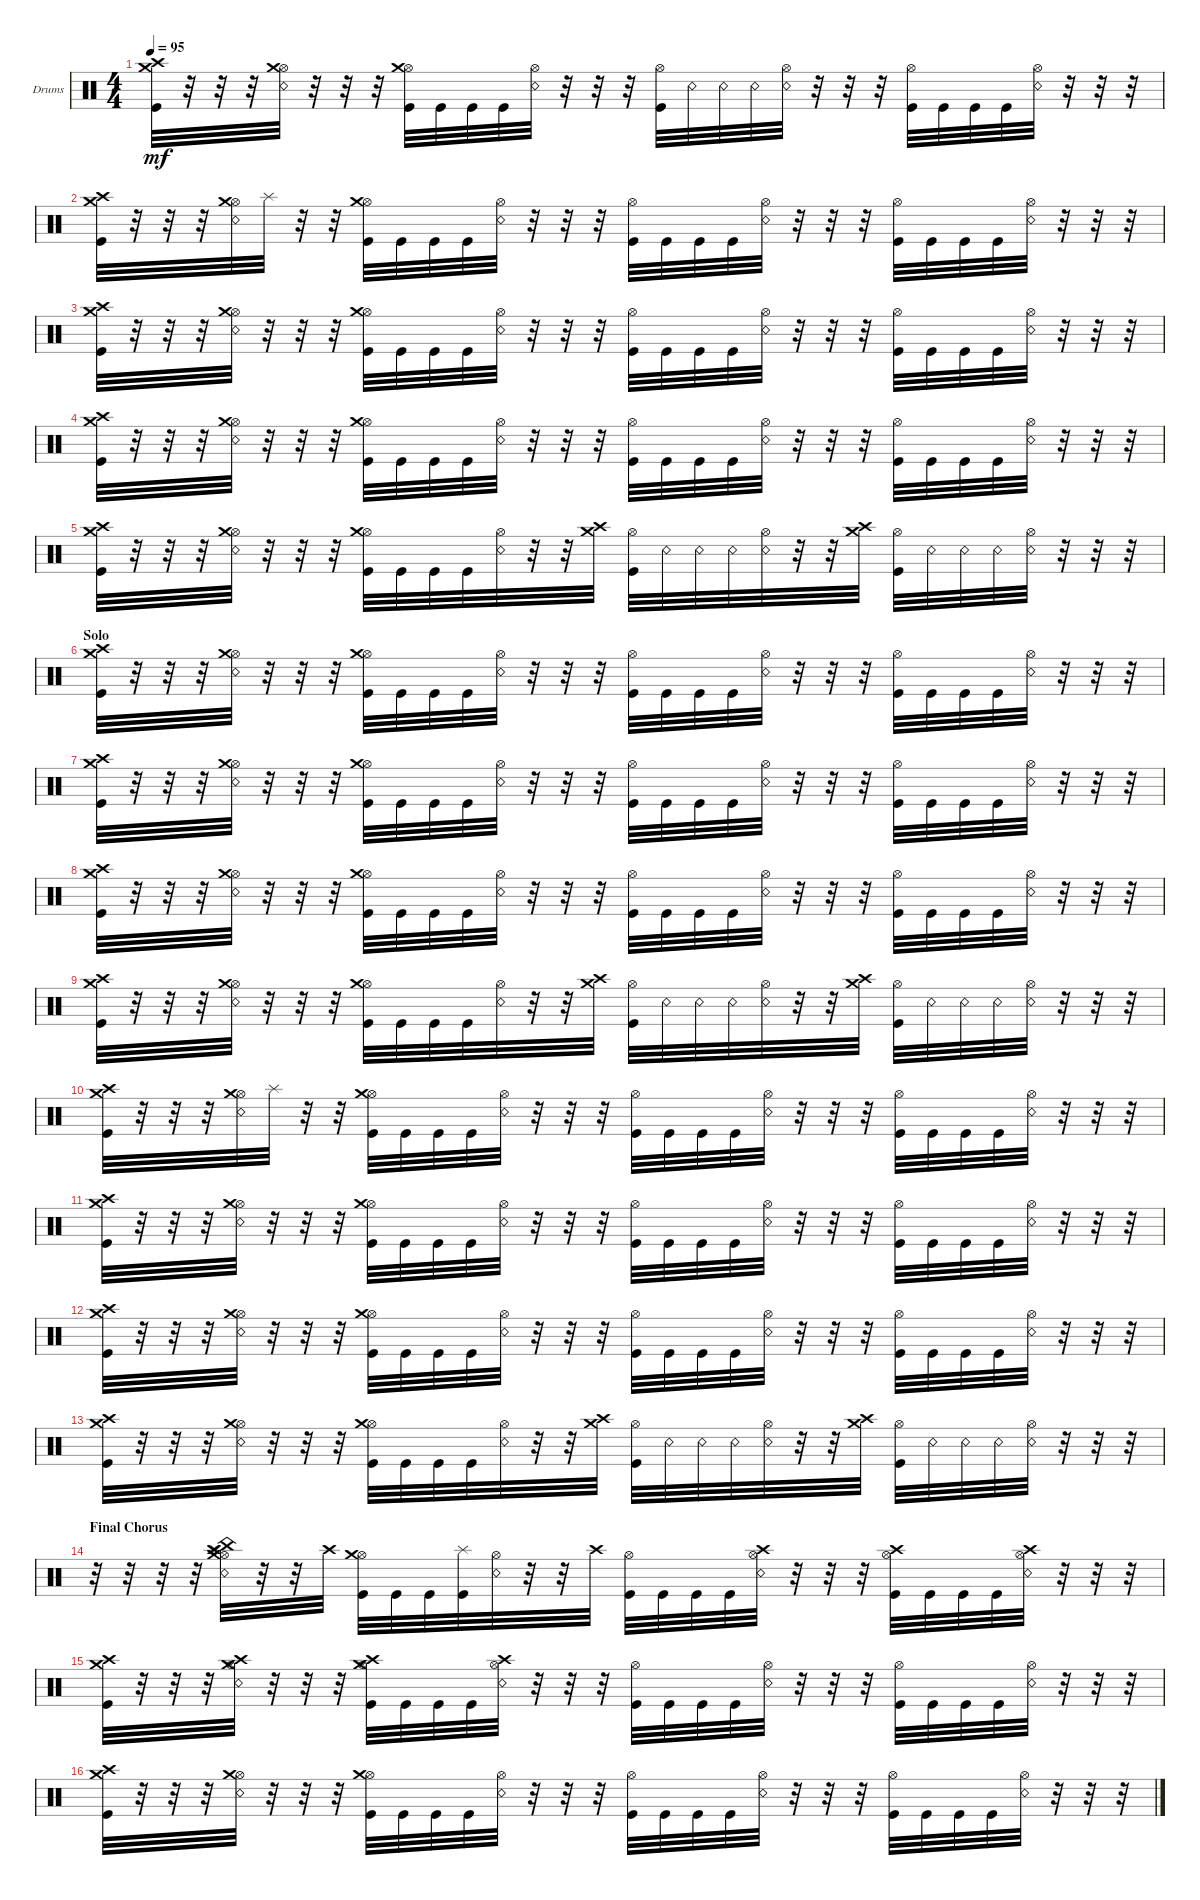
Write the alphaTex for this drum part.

\bracketExtendMode groupsimilarinstruments
\firstSystemTrackNameOrientation horizontal
\otherSystemsTrackNameOrientation horizontal
\track ("Drumkit" "Drums") {instrument percussion}
\staff {score}
\articulation defaults
\ts (4 4)
\tempo 95
\clef neutral
\ks c
("Kick (hit)" "Crash medium (hit)" "Crash high (hit)").32{dy mf} r.32 r.32 r.32 ("Snare (rim shot)" "Hi-Hat (open)" "Crash medium (hit)").32 r.32 r.32 r.32 ("Kick (hit)" "Hi-Hat (open)" "Crash medium (hit)").32 "Kick (hit)".32 "Kick (hit)".32 "Kick (hit)".32 ("Snare (rim shot)" "Hi-Hat (open)").32 r.32 r.32 r.32 ("Kick (hit)" "Hi-Hat (open)").32 "Snare (rim shot)".32 "Snare (rim shot)".32 "Snare (rim shot)".32 ("Snare (rim shot)" "Hi-Hat (open)").32 r.32 r.32 r.32 ("Kick (hit)" "Hi-Hat (open)").32 "Kick (hit)".32 "Kick (hit)".32 "Kick (hit)".32 ("Snare (rim shot)" "Hi-Hat (open)").32 r.32 r.32 r.32 |
("Kick (hit)" "Crash medium (hit)" "Crash high (hit)").32 r.32 r.32 r.32 ("Snare (rim shot)" "Hi-Hat (open)" "Crash medium (hit)").32 "Splash (hit)".32 r.32 r.32 ("Kick (hit)" "Hi-Hat (open)" "Crash medium (hit)").32 "Kick (hit)".32 "Kick (hit)".32 "Kick (hit)".32 ("Snare (rim shot)" "Hi-Hat (open)").32 r.32 r.32 r.32 ("Kick (hit)" "Hi-Hat (open)").32 "Kick (hit)".32 "Kick (hit)".32 "Kick (hit)".32 ("Snare (rim shot)" "Hi-Hat (open)").32 r.32 r.32 r.32 ("Kick (hit)" "Hi-Hat (open)").32 "Kick (hit)".32 "Kick (hit)".32 "Kick (hit)".32 ("Snare (rim shot)" "Hi-Hat (open)").32 r.32 r.32 r.32 |
("Kick (hit)" "Crash medium (hit)" "Crash high (hit)").32 r.32 r.32 r.32 ("Snare (rim shot)" "Hi-Hat (open)" "Crash medium (hit)").32 r.32 r.32 r.32 ("Kick (hit)" "Hi-Hat (open)" "Crash medium (hit)").32 "Kick (hit)".32 "Kick (hit)".32 "Kick (hit)".32 ("Snare (rim shot)" "Hi-Hat (open)").32 r.32 r.32 r.32 ("Kick (hit)" "Hi-Hat (open)").32 "Kick (hit)".32 "Kick (hit)".32 "Kick (hit)".32 ("Snare (rim shot)" "Hi-Hat (open)").32 r.32 r.32 r.32 ("Kick (hit)" "Hi-Hat (open)").32 "Kick (hit)".32 "Kick (hit)".32 "Kick (hit)".32 ("Snare (rim shot)" "Hi-Hat (open)").32 r.32 r.32 r.32 |
("Kick (hit)" "Crash medium (hit)" "Crash high (hit)").32 r.32 r.32 r.32 ("Snare (rim shot)" "Hi-Hat (open)" "Crash medium (hit)").32 r.32 r.32 r.32 ("Kick (hit)" "Hi-Hat (open)" "Crash medium (hit)").32 "Kick (hit)".32 "Kick (hit)".32 "Kick (hit)".32 ("Snare (rim shot)" "Hi-Hat (open)").32 r.32 r.32 r.32 ("Kick (hit)" "Hi-Hat (open)").32 "Kick (hit)".32 "Kick (hit)".32 "Kick (hit)".32 ("Snare (rim shot)" "Hi-Hat (open)").32 r.32 r.32 r.32 ("Kick (hit)" "Hi-Hat (open)").32 "Kick (hit)".32 "Kick (hit)".32 "Kick (hit)".32 ("Snare (rim shot)" "Hi-Hat (open)").32 r.32 r.32 r.32 |
("Kick (hit)" "Crash medium (hit)" "Crash high (hit)").32 r.32 r.32 r.32 ("Snare (rim shot)" "Hi-Hat (open)" "Crash medium (hit)").32 r.32 r.32 r.32 ("Kick (hit)" "Hi-Hat (open)" "Crash medium (hit)").32 "Kick (hit)".32 "Kick (hit)".32 "Kick (hit)".32 ("Snare (rim shot)" "Hi-Hat (open)").32 r.32 r.32 ("Crash medium (hit)" "Crash high (hit)").32 ("Kick (hit)" "Hi-Hat (open)").32 "Snare (rim shot)".32 "Snare (rim shot)".32 "Snare (rim shot)".32 ("Snare (rim shot)" "Hi-Hat (open)").32 r.32 r.32 ("Crash high (hit)" "Crash medium (hit)").32 ("Kick (hit)" "Hi-Hat (open)").32 "Snare (rim shot)".32 "Snare (rim shot)".32 "Snare (rim shot)".32 ("Snare (rim shot)" "Hi-Hat (open)").32 r.32 r.32 r.32 |
\section ("" "Solo")
("Kick (hit)" "Crash medium (hit)" "Crash high (hit)").32 r.32 r.32 r.32 ("Snare (rim shot)" "Hi-Hat (open)" "Crash medium (hit)").32 r.32 r.32 r.32 ("Kick (hit)" "Hi-Hat (open)" "Crash medium (hit)").32 "Kick (hit)".32 "Kick (hit)".32 "Kick (hit)".32 ("Snare (rim shot)" "Hi-Hat (open)").32 r.32 r.32 r.32 ("Kick (hit)" "Hi-Hat (open)").32 "Kick (hit)".32 "Kick (hit)".32 "Kick (hit)".32 ("Snare (rim shot)" "Hi-Hat (open)").32 r.32 r.32 r.32 ("Kick (hit)" "Hi-Hat (open)").32 "Kick (hit)".32 "Kick (hit)".32 "Kick (hit)".32 ("Snare (rim shot)" "Hi-Hat (open)").32 r.32 r.32 r.32 |
("Kick (hit)" "Crash medium (hit)" "Crash high (hit)").32 r.32 r.32 r.32 ("Snare (rim shot)" "Hi-Hat (open)" "Crash medium (hit)").32 r.32 r.32 r.32 ("Kick (hit)" "Hi-Hat (open)" "Crash medium (hit)").32 "Kick (hit)".32 "Kick (hit)".32 "Kick (hit)".32 ("Snare (rim shot)" "Hi-Hat (open)").32 r.32 r.32 r.32 ("Kick (hit)" "Hi-Hat (open)").32 "Kick (hit)".32 "Kick (hit)".32 "Kick (hit)".32 ("Snare (rim shot)" "Hi-Hat (open)").32 r.32 r.32 r.32 ("Kick (hit)" "Hi-Hat (open)").32 "Kick (hit)".32 "Kick (hit)".32 "Kick (hit)".32 ("Snare (rim shot)" "Hi-Hat (open)").32 r.32 r.32 r.32 |
("Kick (hit)" "Crash medium (hit)" "Crash high (hit)").32 r.32 r.32 r.32 ("Snare (rim shot)" "Hi-Hat (open)" "Crash medium (hit)").32 r.32 r.32 r.32 ("Kick (hit)" "Hi-Hat (open)" "Crash medium (hit)").32 "Kick (hit)".32 "Kick (hit)".32 "Kick (hit)".32 ("Snare (rim shot)" "Hi-Hat (open)").32 r.32 r.32 r.32 ("Kick (hit)" "Hi-Hat (open)").32 "Kick (hit)".32 "Kick (hit)".32 "Kick (hit)".32 ("Snare (rim shot)" "Hi-Hat (open)").32 r.32 r.32 r.32 ("Kick (hit)" "Hi-Hat (open)").32 "Kick (hit)".32 "Kick (hit)".32 "Kick (hit)".32 ("Snare (rim shot)" "Hi-Hat (open)").32 r.32 r.32 r.32 |
("Kick (hit)" "Crash medium (hit)" "Crash high (hit)").32 r.32 r.32 r.32 ("Snare (rim shot)" "Hi-Hat (open)" "Crash medium (hit)").32 r.32 r.32 r.32 ("Kick (hit)" "Hi-Hat (open)" "Crash medium (hit)").32 "Kick (hit)".32 "Kick (hit)".32 "Kick (hit)".32 ("Snare (rim shot)" "Hi-Hat (open)").32 r.32 r.32 ("Crash medium (hit)" "Crash high (hit)").32 ("Kick (hit)" "Hi-Hat (open)").32 "Snare (rim shot)".32 "Snare (rim shot)".32 "Snare (rim shot)".32 ("Snare (rim shot)" "Hi-Hat (open)").32 r.32 r.32 ("Crash high (hit)" "Crash medium (hit)").32 ("Kick (hit)" "Hi-Hat (open)").32 "Snare (rim shot)".32 "Snare (rim shot)".32 "Snare (rim shot)".32 ("Snare (rim shot)" "Hi-Hat (open)").32 r.32 r.32 r.32 |
("Kick (hit)" "Crash medium (hit)" "Crash high (hit)").32 r.32 r.32 r.32 ("Snare (rim shot)" "Hi-Hat (open)" "Crash medium (hit)").32 "Splash (hit)".32 r.32 r.32 ("Kick (hit)" "Hi-Hat (open)" "Crash medium (hit)").32 "Kick (hit)".32 "Kick (hit)".32 "Kick (hit)".32 ("Snare (rim shot)" "Hi-Hat (open)").32 r.32 r.32 r.32 ("Kick (hit)" "Hi-Hat (open)").32 "Kick (hit)".32 "Kick (hit)".32 "Kick (hit)".32 ("Snare (rim shot)" "Hi-Hat (open)").32 r.32 r.32 r.32 ("Kick (hit)" "Hi-Hat (open)").32 "Kick (hit)".32 "Kick (hit)".32 "Kick (hit)".32 ("Snare (rim shot)" "Hi-Hat (open)").32 r.32 r.32 r.32 |
("Kick (hit)" "Crash medium (hit)" "Crash high (hit)").32 r.32 r.32 r.32 ("Snare (rim shot)" "Hi-Hat (open)" "Crash medium (hit)").32 r.32 r.32 r.32 ("Kick (hit)" "Hi-Hat (open)" "Crash medium (hit)").32 "Kick (hit)".32 "Kick (hit)".32 "Kick (hit)".32 ("Snare (rim shot)" "Hi-Hat (open)").32 r.32 r.32 r.32 ("Kick (hit)" "Hi-Hat (open)").32 "Kick (hit)".32 "Kick (hit)".32 "Kick (hit)".32 ("Snare (rim shot)" "Hi-Hat (open)").32 r.32 r.32 r.32 ("Kick (hit)" "Hi-Hat (open)").32 "Kick (hit)".32 "Kick (hit)".32 "Kick (hit)".32 ("Snare (rim shot)" "Hi-Hat (open)").32 r.32 r.32 r.32 |
("Kick (hit)" "Crash medium (hit)" "Crash high (hit)").32 r.32 r.32 r.32 ("Snare (rim shot)" "Hi-Hat (open)" "Crash medium (hit)").32 r.32 r.32 r.32 ("Kick (hit)" "Hi-Hat (open)" "Crash medium (hit)").32 "Kick (hit)".32 "Kick (hit)".32 "Kick (hit)".32 ("Snare (rim shot)" "Hi-Hat (open)").32 r.32 r.32 r.32 ("Kick (hit)" "Hi-Hat (open)").32 "Kick (hit)".32 "Kick (hit)".32 "Kick (hit)".32 ("Snare (rim shot)" "Hi-Hat (open)").32 r.32 r.32 r.32 ("Kick (hit)" "Hi-Hat (open)").32 "Kick (hit)".32 "Kick (hit)".32 "Kick (hit)".32 ("Snare (rim shot)" "Hi-Hat (open)").32 r.32 r.32 r.32 |
("Kick (hit)" "Crash medium (hit)" "Crash high (hit)").32 r.32 r.32 r.32 ("Snare (rim shot)" "Hi-Hat (open)" "Crash medium (hit)").32 r.32 r.32 r.32 ("Kick (hit)" "Hi-Hat (open)" "Crash medium (hit)").32 "Kick (hit)".32 "Kick (hit)".32 "Kick (hit)".32 ("Snare (rim shot)" "Hi-Hat (open)").32 r.32 r.32 ("Crash medium (hit)" "Crash high (hit)").32 ("Kick (hit)" "Hi-Hat (open)").32 "Snare (rim shot)".32 "Snare (rim shot)".32 "Snare (rim shot)".32 ("Snare (rim shot)" "Hi-Hat (open)").32 r.32 r.32 ("Crash high (hit)" "Crash medium (hit)").32 ("Kick (hit)" "Hi-Hat (open)").32 "Snare (rim shot)".32 "Snare (rim shot)".32 "Snare (rim shot)".32 ("Snare (rim shot)" "Hi-Hat (open)").32 r.32 r.32 r.32 |
\section ("" "Final Chorus")
r.32 r.32 r.32 r.32 ("Snare (rim shot)" "Hi-Hat (open)" "Crash medium (hit)" "Crash high (hit)" "Splash (hit)" "China (hit)").32 r.32 r.32 "Crash high (hit)".32 ("Kick (hit)" "Hi-Hat (open)" "Crash medium (hit)").32 "Kick (hit)".32 "Kick (hit)".32 ("Kick (hit)" "Splash (hit)").32 ("Snare (rim shot)" "Hi-Hat (open)").32 r.32 r.32 "Crash high (hit)".32 ("Kick (hit)" "Hi-Hat (open)").32 "Kick (hit)".32 "Kick (hit)".32 "Kick (hit)".32 ("Snare (rim shot)" "Hi-Hat (open)" "Crash high (hit)").32 r.32 r.32 r.32 ("Kick (hit)" "Hi-Hat (open)" "Crash high (hit)").32 "Kick (hit)".32 "Kick (hit)".32 "Kick (hit)".32 ("Snare (rim shot)" "Hi-Hat (open)" "Crash high (hit)").32 r.32 r.32 r.32 |
("Kick (hit)" "Crash medium (hit)" "Crash high (hit)").32 r.32 r.32 r.32 ("Snare (rim shot)" "Hi-Hat (open)" "Crash medium (hit)" "Crash high (hit)").32 r.32 r.32 r.32 ("Kick (hit)" "Hi-Hat (open)" "Crash medium (hit)" "Crash high (hit)").32 "Kick (hit)".32 "Kick (hit)".32 "Kick (hit)".32 ("Snare (rim shot)" "Hi-Hat (open)" "Crash high (hit)").32 r.32 r.32 r.32 ("Kick (hit)" "Hi-Hat (open)").32 "Kick (hit)".32 "Kick (hit)".32 "Kick (hit)".32 ("Snare (rim shot)" "Hi-Hat (open)").32 r.32 r.32 r.32 ("Kick (hit)" "Hi-Hat (open)").32 "Kick (hit)".32 "Kick (hit)".32 "Kick (hit)".32 ("Snare (rim shot)" "Hi-Hat (open)").32 r.32 r.32 r.32 |
("Kick (hit)" "Crash medium (hit)" "Crash high (hit)").32 r.32 r.32 r.32 ("Snare (rim shot)" "Hi-Hat (open)" "Crash medium (hit)").32 r.32 r.32 r.32 ("Kick (hit)" "Hi-Hat (open)" "Crash medium (hit)").32 "Kick (hit)".32 "Kick (hit)".32 "Kick (hit)".32 ("Snare (rim shot)" "Hi-Hat (open)").32 r.32 r.32 r.32 ("Kick (hit)" "Hi-Hat (open)").32 "Kick (hit)".32 "Kick (hit)".32 "Kick (hit)".32 ("Snare (rim shot)" "Hi-Hat (open)").32 r.32 r.32 r.32 ("Kick (hit)" "Hi-Hat (open)").32 "Kick (hit)".32 "Kick (hit)".32 "Kick (hit)".32 ("Snare (rim shot)" "Hi-Hat (open)").32 r.32 r.32 r.32
